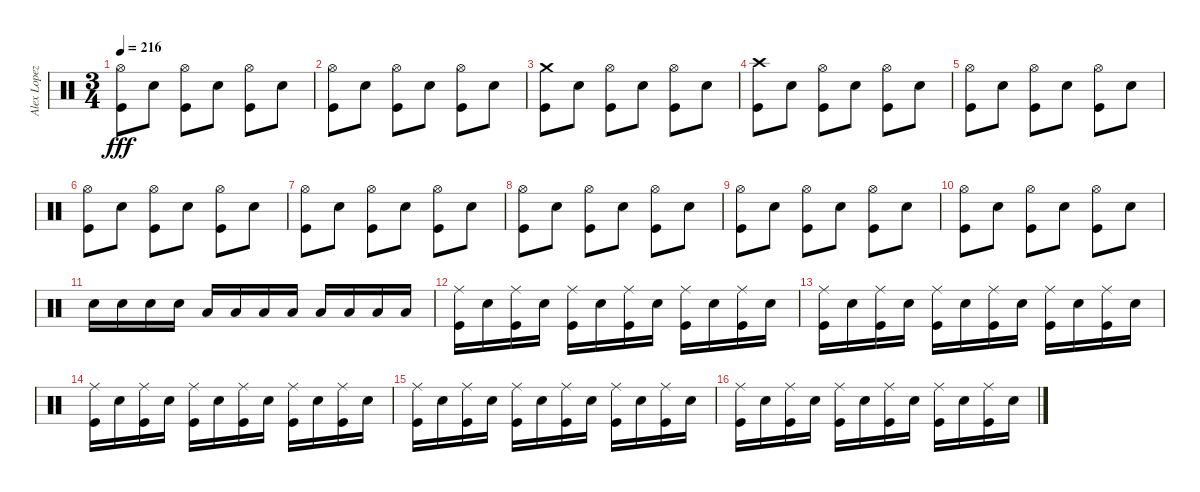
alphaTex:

\track ("Alex Lopez" "Alex Lopez") {instrument percussion}
\staff {score}
\articulation defaults
\ts (3 4)
\tempo 216
\clef neutral
\ks c
("Hi-Hat (open)" "Kick (hit)").8{dy fff} "Electric Snare (hit)".8 ("Hi-Hat (open)" "Kick (hit)").8 "Electric Snare (hit)".8 ("Hi-Hat (open)" "Kick (hit)").8 "Electric Snare (hit)".8 |
("Hi-Hat (open)" "Kick (hit)").8 "Electric Snare (hit)".8 ("Hi-Hat (open)" "Kick (hit)").8 "Electric Snare (hit)".8 ("Hi-Hat (open)" "Kick (hit)").8 "Electric Snare (hit)".8 |
("Crash medium (hit)" "Kick (hit)").8 "Electric Snare (hit)".8 ("Hi-Hat (open)" "Kick (hit)").8 "Electric Snare (hit)".8 ("Hi-Hat (open)" "Kick (hit)").8 "Electric Snare (hit)".8 |
("Crash high (hit)" "Kick (hit)").8 "Electric Snare (hit)".8 ("Hi-Hat (open)" "Kick (hit)").8 "Electric Snare (hit)".8 ("Hi-Hat (open)" "Kick (hit)").8 "Electric Snare (hit)".8 |
("Hi-Hat (open)" "Kick (hit)").8 "Electric Snare (hit)".8 ("Hi-Hat (open)" "Kick (hit)").8 "Electric Snare (hit)".8 ("Hi-Hat (open)" "Kick (hit)").8 "Electric Snare (hit)".8 |
("Hi-Hat (open)" "Kick (hit)").8 "Electric Snare (hit)".8 ("Hi-Hat (open)" "Kick (hit)").8 "Electric Snare (hit)".8 ("Hi-Hat (open)" "Kick (hit)").8 "Electric Snare (hit)".8 |
("Hi-Hat (open)" "Kick (hit)").8 "Electric Snare (hit)".8 ("Hi-Hat (open)" "Kick (hit)").8 "Electric Snare (hit)".8 ("Hi-Hat (open)" "Kick (hit)").8 "Electric Snare (hit)".8 |
("Hi-Hat (open)" "Kick (hit)").8 "Electric Snare (hit)".8 ("Hi-Hat (open)" "Kick (hit)").8 "Electric Snare (hit)".8 ("Hi-Hat (open)" "Kick (hit)").8 "Electric Snare (hit)".8 |
("Hi-Hat (open)" "Kick (hit)").8 "Electric Snare (hit)".8 ("Hi-Hat (open)" "Kick (hit)").8 "Electric Snare (hit)".8 ("Hi-Hat (open)" "Kick (hit)").8 "Electric Snare (hit)".8 |
("Hi-Hat (open)" "Kick (hit)").8 "Electric Snare (hit)".8 ("Hi-Hat (open)" "Kick (hit)").8 "Electric Snare (hit)".8 ("Hi-Hat (open)" "Kick (hit)").8 "Electric Snare (hit)".8 |
"Electric Snare (hit)".16 "Electric Snare (hit)".16 "Electric Snare (hit)".16 "Electric Snare (hit)".16 "Low Tom (hit)".16 "Low Tom (hit)".16 "Low Tom (hit)".16 "Low Tom (hit)".16 "Low Floor Tom (hit)".16 "Low Floor Tom (hit)".16 "Low Floor Tom (hit)".16 "Low Floor Tom (hit)".16 |
("Ride (middle)" "Kick (hit)").16 "Electric Snare (hit)".16 ("Ride (middle)" "Kick (hit)").16 "Electric Snare (hit)".16 ("Ride (middle)" "Kick (hit)").16 "Electric Snare (hit)".16 ("Ride (middle)" "Kick (hit)").16 "Electric Snare (hit)".16 ("Ride (middle)" "Kick (hit)").16 "Electric Snare (hit)".16 ("Ride (middle)" "Kick (hit)").16 "Electric Snare (hit)".16 |
("Ride (middle)" "Kick (hit)").16 "Electric Snare (hit)".16 ("Ride (middle)" "Kick (hit)").16 "Electric Snare (hit)".16 ("Ride (middle)" "Kick (hit)").16 "Electric Snare (hit)".16 ("Ride (middle)" "Kick (hit)").16 "Electric Snare (hit)".16 ("Ride (middle)" "Kick (hit)").16 "Electric Snare (hit)".16 ("Ride (middle)" "Kick (hit)").16 "Electric Snare (hit)".16 |
("Ride (middle)" "Kick (hit)").16 "Electric Snare (hit)".16 ("Ride (middle)" "Kick (hit)").16 "Electric Snare (hit)".16 ("Ride (middle)" "Kick (hit)").16 "Electric Snare (hit)".16 ("Ride (middle)" "Kick (hit)").16 "Electric Snare (hit)".16 ("Ride (middle)" "Kick (hit)").16 "Electric Snare (hit)".16 ("Ride (middle)" "Kick (hit)").16 "Electric Snare (hit)".16 |
("Ride (middle)" "Kick (hit)").16 "Electric Snare (hit)".16 ("Ride (middle)" "Kick (hit)").16 "Electric Snare (hit)".16 ("Ride (middle)" "Kick (hit)").16 "Electric Snare (hit)".16 ("Ride (middle)" "Kick (hit)").16 "Electric Snare (hit)".16 ("Ride (middle)" "Kick (hit)").16 "Electric Snare (hit)".16 ("Ride (middle)" "Kick (hit)").16 "Electric Snare (hit)".16 |
("Ride (middle)" "Kick (hit)").16 "Electric Snare (hit)".16 ("Ride (middle)" "Kick (hit)").16 "Electric Snare (hit)".16 ("Ride (middle)" "Kick (hit)").16 "Electric Snare (hit)".16 ("Ride (middle)" "Kick (hit)").16 "Electric Snare (hit)".16 ("Ride (middle)" "Kick (hit)").16 "Electric Snare (hit)".16 ("Ride (middle)" "Kick (hit)").16 "Electric Snare (hit)".16
